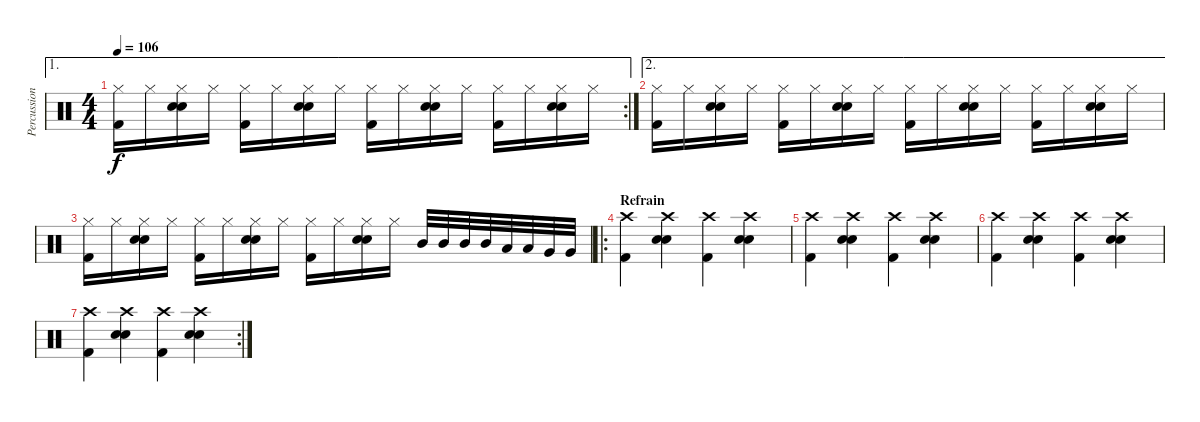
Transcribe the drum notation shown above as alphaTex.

\track ("Percussion" "Percussion") {instrument percussion}
\staff {score}
\articulation defaults
\ae 1
\rc 2
\ts (4 4)
\tempo 106
\clef neutral
\ks c
("Hi-Hat (closed)" "Kick (hit) 2").16{dy f} "Hi-Hat (closed)".16 ("Hi-Hat (closed)" "Snare (hit) 2" "Electric Snare (hit)").16 "Hi-Hat (closed)".16 ("Hi-Hat (closed)" "Kick (hit) 2").16 "Hi-Hat (closed)".16 ("Hi-Hat (closed)" "Snare (hit) 2" "Electric Snare (hit)").16 "Hi-Hat (closed)".16 ("Hi-Hat (closed)" "Kick (hit) 2").16 "Hi-Hat (closed)".16 ("Hi-Hat (closed)" "Snare (hit) 2" "Electric Snare (hit)").16 "Hi-Hat (closed)".16 ("Hi-Hat (closed)" "Kick (hit) 2").16 "Hi-Hat (closed)".16 ("Hi-Hat (closed)" "Snare (hit) 2" "Electric Snare (hit)").16 "Hi-Hat (closed)".16 |
\ae 2
("Hi-Hat (closed)" "Kick (hit) 2").16 "Hi-Hat (closed)".16 ("Hi-Hat (closed)" "Snare (hit) 2" "Electric Snare (hit)").16 "Hi-Hat (closed)".16 ("Hi-Hat (closed)" "Kick (hit) 2").16 "Hi-Hat (closed)".16 ("Hi-Hat (closed)" "Snare (hit) 2" "Electric Snare (hit)").16 "Hi-Hat (closed)".16 ("Hi-Hat (closed)" "Kick (hit) 2").16 "Hi-Hat (closed)".16 ("Hi-Hat (closed)" "Snare (hit) 2" "Electric Snare (hit)").16 "Hi-Hat (closed)".16 ("Hi-Hat (closed)" "Kick (hit) 2").16 "Hi-Hat (closed)".16 ("Hi-Hat (closed)" "Snare (hit) 2" "Electric Snare (hit)").16 "Hi-Hat (closed)".16 |
("Hi-Hat (closed)" "Kick (hit) 2").16 "Hi-Hat (closed)".16 ("Hi-Hat (closed)" "Snare (hit) 2" "Electric Snare (hit)").16 "Hi-Hat (closed)".16 ("Hi-Hat (closed)" "Kick (hit) 2").16 "Hi-Hat (closed)".16 ("Hi-Hat (closed)" "Snare (hit) 2" "Electric Snare (hit)").16 "Hi-Hat (closed)".16 ("Hi-Hat (closed)" "Kick (hit) 2").16 "Hi-Hat (closed)".16 ("Hi-Hat (closed)" "Snare (hit) 2" "Electric Snare (hit)").16 "Hi-Hat (closed)".16 "Mid Tom (hit)".32 "Mid Tom (hit)".32 "Mid Tom (hit)".32 "Mid Tom (hit)".32 "Low Tom (hit)".32 "Low Tom (hit)".32 "Very Low Tom (hit)".32 "Very Low Tom (hit)".32 |
\ro
\section ("" "Refrain")
("Crash high (hit)" "Kick (hit) 2").4 ("Crash high (hit)" "Snare (hit) 2" "Electric Snare (hit)").4 ("Crash high (hit)" "Kick (hit) 2").4 ("Crash high (hit)" "Snare (hit) 2" "Electric Snare (hit)").4 |
("Crash high (hit)" "Kick (hit) 2").4 ("Crash high (hit)" "Snare (hit) 2" "Electric Snare (hit)").4 ("Crash high (hit)" "Kick (hit) 2").4 ("Crash high (hit)" "Snare (hit) 2" "Electric Snare (hit)").4 |
("Crash high (hit)" "Kick (hit) 2").4 ("Crash high (hit)" "Snare (hit) 2" "Electric Snare (hit)").4 ("Crash high (hit)" "Kick (hit) 2").4 ("Crash high (hit)" "Snare (hit) 2" "Electric Snare (hit)").4 |
\rc 2
("Crash high (hit)" "Kick (hit) 2").4 ("Crash high (hit)" "Snare (hit) 2" "Electric Snare (hit)").4 ("Crash high (hit)" "Kick (hit) 2").4 ("Crash high (hit)" "Snare (hit) 2" "Electric Snare (hit)").4
